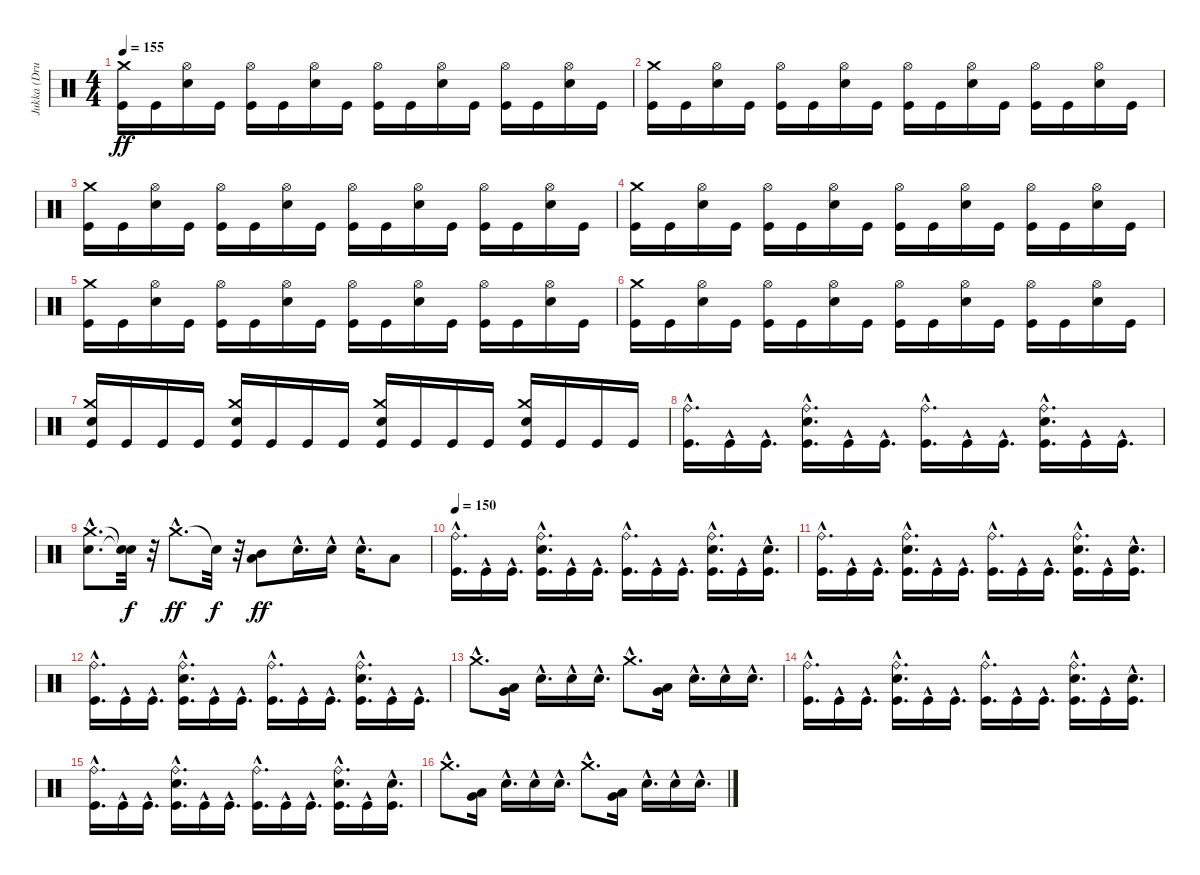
\track ("Jukka (Drums)" "Jukka (Dru") {instrument percussion}
\staff {score}
\articulation defaults
\ts (4 4)
\tempo 155
\clef neutral
\ks c
("Kick (hit)" "Crash medium (hit)").16{dy ff} "Kick (hit)".16 ("Electric Snare (hit)" "Hi-Hat (open)").16 "Kick (hit)".16 ("Kick (hit)" "Hi-Hat (open)").16 "Kick (hit)".16 ("Electric Snare (hit)" "Hi-Hat (open)").16 "Kick (hit)".16 ("Kick (hit)" "Hi-Hat (open)").16 "Kick (hit)".16 ("Electric Snare (hit)" "Hi-Hat (open)").16 "Kick (hit)".16 ("Kick (hit)" "Hi-Hat (open)").16 "Kick (hit)".16 ("Electric Snare (hit)" "Hi-Hat (open)").16 "Kick (hit)".16 |
("Kick (hit)" "Crash medium (hit)").16 "Kick (hit)".16 ("Electric Snare (hit)" "Hi-Hat (open)").16 "Kick (hit)".16 ("Kick (hit)" "Hi-Hat (open)").16 "Kick (hit)".16 ("Electric Snare (hit)" "Hi-Hat (open)").16 "Kick (hit)".16 ("Kick (hit)" "Hi-Hat (open)").16 "Kick (hit)".16 ("Electric Snare (hit)" "Hi-Hat (open)").16 "Kick (hit)".16 ("Kick (hit)" "Hi-Hat (open)").16 "Kick (hit)".16 ("Electric Snare (hit)" "Hi-Hat (open)").16 "Kick (hit)".16 |
("Kick (hit)" "Crash medium (hit)").16 "Kick (hit)".16 ("Electric Snare (hit)" "Hi-Hat (open)").16 "Kick (hit)".16 ("Kick (hit)" "Hi-Hat (open)").16 "Kick (hit)".16 ("Electric Snare (hit)" "Hi-Hat (open)").16 "Kick (hit)".16 ("Kick (hit)" "Hi-Hat (open)").16 "Kick (hit)".16 ("Electric Snare (hit)" "Hi-Hat (open)").16 "Kick (hit)".16 ("Kick (hit)" "Hi-Hat (open)").16 "Kick (hit)".16 ("Electric Snare (hit)" "Hi-Hat (open)").16 "Kick (hit)".16 |
("Kick (hit)" "Crash medium (hit)").16 "Kick (hit)".16 ("Electric Snare (hit)" "Hi-Hat (open)").16 "Kick (hit)".16 ("Kick (hit)" "Hi-Hat (open)").16 "Kick (hit)".16 ("Electric Snare (hit)" "Hi-Hat (open)").16 "Kick (hit)".16 ("Kick (hit)" "Hi-Hat (open)").16 "Kick (hit)".16 ("Electric Snare (hit)" "Hi-Hat (open)").16 "Kick (hit)".16 ("Kick (hit)" "Hi-Hat (open)").16 "Kick (hit)".16 ("Electric Snare (hit)" "Hi-Hat (open)").16 "Kick (hit)".16 |
("Kick (hit)" "Crash medium (hit)").16 "Kick (hit)".16 ("Electric Snare (hit)" "Hi-Hat (open)").16 "Kick (hit)".16 ("Kick (hit)" "Hi-Hat (open)").16 "Kick (hit)".16 ("Electric Snare (hit)" "Hi-Hat (open)").16 "Kick (hit)".16 ("Kick (hit)" "Hi-Hat (open)").16 "Kick (hit)".16 ("Electric Snare (hit)" "Hi-Hat (open)").16 "Kick (hit)".16 ("Kick (hit)" "Hi-Hat (open)").16 "Kick (hit)".16 ("Electric Snare (hit)" "Hi-Hat (open)").16 "Kick (hit)".16 |
("Kick (hit)" "Crash medium (hit)").16 "Kick (hit)".16 ("Electric Snare (hit)" "Hi-Hat (open)").16 "Kick (hit)".16 ("Kick (hit)" "Hi-Hat (open)").16 "Kick (hit)".16 ("Electric Snare (hit)" "Hi-Hat (open)").16 "Kick (hit)".16 ("Kick (hit)" "Hi-Hat (open)").16 "Kick (hit)".16 ("Electric Snare (hit)" "Hi-Hat (open)").16 "Kick (hit)".16 ("Kick (hit)" "Hi-Hat (open)").16 "Kick (hit)".16 ("Electric Snare (hit)" "Hi-Hat (open)").16 "Kick (hit)".16 |
("Kick (hit)" "Electric Snare (hit)" "Crash medium (hit)").16 "Kick (hit)".16 "Kick (hit)".16 "Kick (hit)".16 ("Kick (hit)" "Electric Snare (hit)" "Crash medium (hit)").16 "Kick (hit)".16 "Kick (hit)".16 "Kick (hit)".16 ("Kick (hit)" "Electric Snare (hit)" "Crash medium (hit)").16 "Kick (hit)".16 "Kick (hit)".16 "Kick (hit)".16 ("Kick (hit)" "Electric Snare (hit)" "Crash medium (hit)").16 "Kick (hit)".16 "Kick (hit)".16 "Kick (hit)".16 |
("Kick (hit)"{hac} "Ride (bell)"{hac}).16{d} "Kick (hit)"{hac}.16 "Kick (hit)"{hac}.16{d} ("Kick (hit)"{hac} "Electric Snare (hit)"{hac} "Ride (bell)"{hac}).16{d} "Kick (hit)"{hac}.16 "Kick (hit)"{hac}.16{d} ("Kick (hit)"{hac} "Ride (bell)"{hac}).16{d} "Kick (hit)"{hac}.16 "Kick (hit)"{hac}.16{d} ("Kick (hit)"{hac} "Electric Snare (hit)"{hac} "Ride (bell)"{hac}).16{d} "Kick (hit)"{hac}.16 "Kick (hit)"{hac}.16{d} |
("Electric Snare (hit)"{hac} "Crash medium (hit)"{hac}).8{d} ("Snare (hit)"{t} "Snare (hit)"{t}).32{dy f} r.32 "Crash medium (hit)"{hac}.8{d dy ff} "Snare (hit)"{t}.32{dy f} r.32 ("Low Tom (hit)" "Mid Tom (hit)").8{dy ff} "Electric Snare (hit)"{hac}.16{d} "Electric Snare (hit)"{hac}.16 "Electric Snare (hit)"{hac}.16{d} "Low Floor Tom (hit)".8 |
\tempo 150
("Kick (hit)"{hac} "Ride (bell)"{hac}).16{d} "Kick (hit)"{hac}.16 "Kick (hit)"{hac}.16{d} ("Kick (hit)"{hac} "Electric Snare (hit)"{hac} "Ride (bell)"{hac}).16{d} "Kick (hit)"{hac}.16 "Kick (hit)"{hac}.16{d} ("Kick (hit)"{hac} "Ride (bell)"{hac}).16{d} "Kick (hit)"{hac}.16 "Kick (hit)"{hac}.16{d} ("Kick (hit)"{hac} "Electric Snare (hit)"{hac} "Ride (bell)"{hac}).16{d} "Kick (hit)"{hac}.16 ("Kick (hit)"{hac} "Electric Snare (hit)").16{d} |
("Kick (hit)"{hac} "Ride (bell)"{hac}).16{d} "Kick (hit)"{hac}.16 "Kick (hit)"{hac}.16{d} ("Kick (hit)"{hac} "Electric Snare (hit)"{hac} "Ride (bell)"{hac}).16{d} "Kick (hit)"{hac}.16 "Kick (hit)"{hac}.16{d} ("Kick (hit)"{hac} "Ride (bell)"{hac}).16{d} "Kick (hit)"{hac}.16 "Kick (hit)"{hac}.16{d} ("Kick (hit)"{hac} "Electric Snare (hit)"{hac} "Ride (bell)"{hac}).16{d} "Kick (hit)"{hac}.16 ("Kick (hit)"{hac} "Electric Snare (hit)").16{d} |
("Kick (hit)"{hac} "Ride (bell)"{hac}).16{d} "Kick (hit)"{hac}.16 "Kick (hit)"{hac}.16{d} ("Kick (hit)"{hac} "Electric Snare (hit)"{hac} "Ride (bell)"{hac}).16{d} "Kick (hit)"{hac}.16 "Kick (hit)"{hac}.16{d} ("Kick (hit)"{hac} "Ride (bell)"{hac}).16{d} "Kick (hit)"{hac}.16 "Kick (hit)"{hac}.16{d} ("Kick (hit)"{hac} "Electric Snare (hit)"{hac} "Ride (bell)"{hac}).16{d} "Kick (hit)"{hac}.16 "Kick (hit)"{hac}.16{d} |
"Crash medium (hit)"{hac}.8{d} ("Very Low Tom (hit)" "Low Tom (hit)").16 "Electric Snare (hit)"{hac}.16{d} "Electric Snare (hit)"{hac}.16 "Electric Snare (hit)"{hac}.16{d} "Crash medium (hit)"{hac}.8{d} ("Very Low Tom (hit)" "Low Tom (hit)").16 "Electric Snare (hit)"{hac}.16{d} "Electric Snare (hit)"{hac}.16 "Electric Snare (hit)"{hac}.16{d} |
("Kick (hit)"{hac} "Ride (bell)"{hac}).16{d} "Kick (hit)"{hac}.16 "Kick (hit)"{hac}.16{d} ("Kick (hit)"{hac} "Electric Snare (hit)"{hac} "Ride (bell)"{hac}).16{d} "Kick (hit)"{hac}.16 "Kick (hit)"{hac}.16{d} ("Kick (hit)"{hac} "Ride (bell)"{hac}).16{d} "Kick (hit)"{hac}.16 "Kick (hit)"{hac}.16{d} ("Kick (hit)"{hac} "Electric Snare (hit)"{hac} "Ride (bell)"{hac}).16{d} "Kick (hit)"{hac}.16 ("Kick (hit)"{hac} "Electric Snare (hit)").16{d} |
("Kick (hit)"{hac} "Ride (bell)"{hac}).16{d} "Kick (hit)"{hac}.16 "Kick (hit)"{hac}.16{d} ("Kick (hit)"{hac} "Electric Snare (hit)"{hac} "Ride (bell)"{hac}).16{d} "Kick (hit)"{hac}.16 "Kick (hit)"{hac}.16{d} ("Kick (hit)"{hac} "Ride (bell)"{hac}).16{d} "Kick (hit)"{hac}.16 "Kick (hit)"{hac}.16{d} ("Kick (hit)"{hac} "Electric Snare (hit)"{hac} "Ride (bell)"{hac}).16{d} "Kick (hit)"{hac}.16 ("Kick (hit)"{hac} "Electric Snare (hit)").16{d} |
"Crash medium (hit)"{hac}.8{d} ("Very Low Tom (hit)" "Low Tom (hit)").16 "Electric Snare (hit)"{hac}.16{d} "Electric Snare (hit)"{hac}.16 "Electric Snare (hit)"{hac}.16{d} "Crash medium (hit)"{hac}.8{d} ("Very Low Tom (hit)" "Low Tom (hit)").16 "Electric Snare (hit)"{hac}.16{d} "Electric Snare (hit)"{hac}.16 "Electric Snare (hit)"{hac}.16{d}
